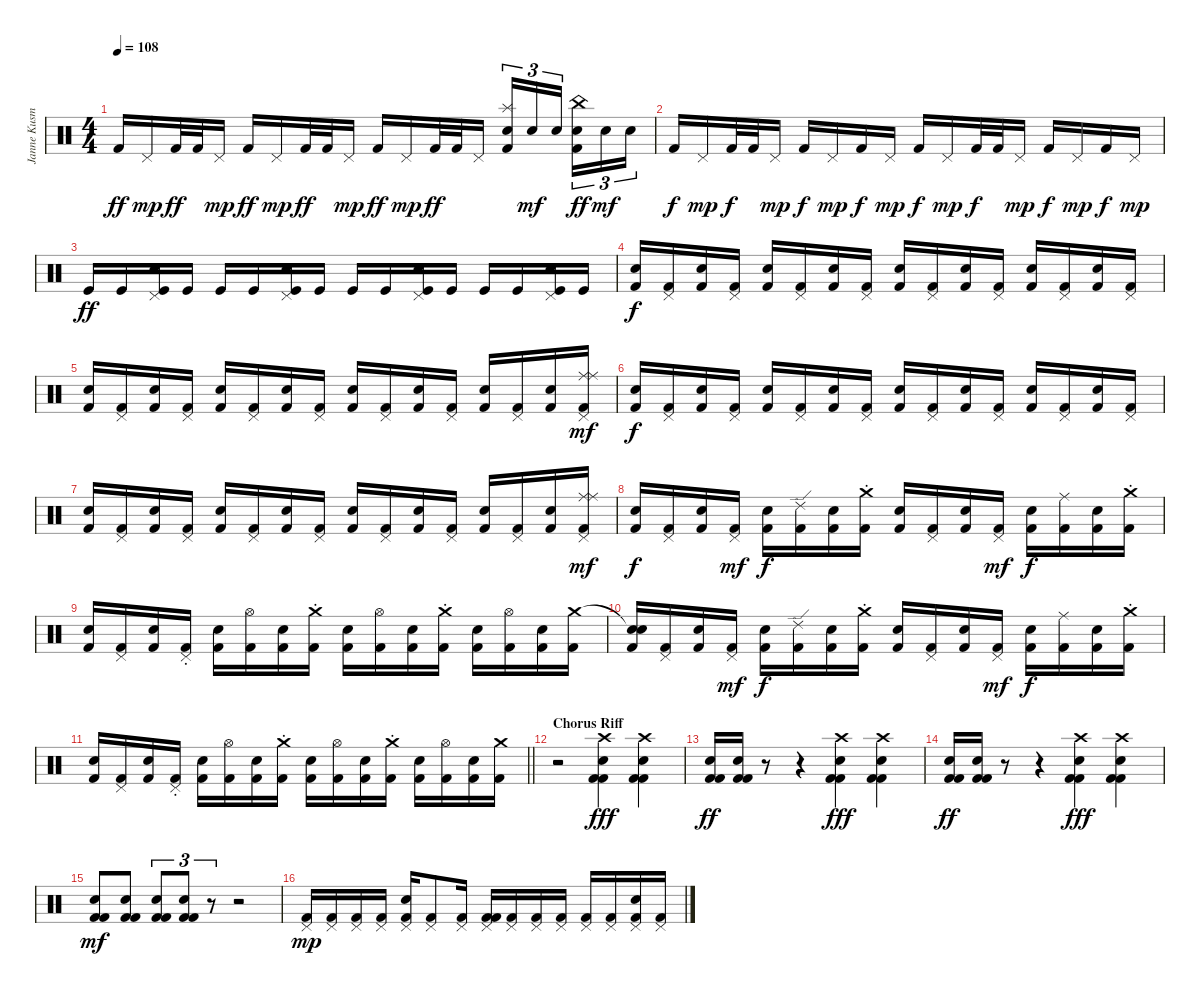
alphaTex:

\track ("Janne Kusmin" "Janne Kusm") {instrument percussion}
\staff {score}
\articulation defaults
\ts (4 4)
\tempo 108
\clef neutral
\ks c "Kick (hit) 2".16{dy ff} "Pedal Hi-Hat (hit)".16{dy mp} "Kick (hit) 2".32{dy ff} "Kick (hit) 2".32 "Pedal Hi-Hat (hit)".16{dy mp} "Kick (hit) 2".16{dy ff} "Pedal Hi-Hat (hit)".16{dy mp} "Kick (hit) 2".32{dy ff} "Kick (hit) 2".32 "Pedal Hi-Hat (hit)".16{dy mp} "Kick (hit) 2".16{dy ff} "Pedal Hi-Hat (hit)".16{dy mp} "Kick (hit) 2".32{dy ff} "Kick (hit) 2".32 "Pedal Hi-Hat (hit)".16
("Splash (hit)" "Snare (hit) 2" "Kick (hit) 2").16{tu (3 2)} "Snare (hit) 2".16{tu (3 2) dy mf} "Snare (hit) 2".16{tu (3 2) beam splitsecondary} ("China (hit)" "Snare (hit) 2" "Kick (hit) 2").16{tu (3 2) dy ff} "Snare (hit) 2".16{tu (3 2) dy mf} "Snare (hit) 2".16{tu (3 2)} |
"Kick (hit) 2".16{dy f} "Pedal Hi-Hat (hit)".16{dy mp} "Kick (hit) 2".32{dy f} "Kick (hit) 2".32 "Pedal Hi-Hat (hit)".16{dy mp} "Kick (hit) 2".16{dy f} "Pedal Hi-Hat (hit)".16{dy mp} "Kick (hit) 2".16{dy f} "Pedal Hi-Hat (hit)".16{dy mp} "Kick (hit) 2".16{dy f} "Pedal Hi-Hat (hit)".16{dy mp} "Kick (hit) 2".32{dy f} "Kick (hit) 2".32 "Pedal Hi-Hat (hit)".16{dy mp} "Kick (hit) 2".16{dy f} "Pedal Hi-Hat (hit)".16{dy mp} "Kick (hit) 2".16{dy f} "Pedal Hi-Hat (hit)".16{dy mp} |
"Kick (hit)".16{dy ff} "Kick (hit)".16 ("Pedal Hi-Hat (hit)" "Snare (hit) 2" "Kick (hit)").16 "Kick (hit)".16 "Kick (hit)".16 "Kick (hit)".16 ("Pedal Hi-Hat (hit)" "Snare (hit) 2" "Kick (hit)").16 "Kick (hit)".16 "Kick (hit)".16 "Kick (hit)".16 ("Pedal Hi-Hat (hit)" "Snare (hit) 2" "Kick (hit)").16 "Kick (hit)".16 "Kick (hit)".16 "Kick (hit)".16 ("Pedal Hi-Hat (hit)" "Snare (hit) 2" "Kick (hit)").16 "Kick (hit)".16 |
("Snare (hit) 2" "Kick (hit) 2").16{dy f} ("Pedal Hi-Hat (hit)" "Kick (hit) 2").16 ("Snare (hit) 2" "Kick (hit) 2").16 ("Pedal Hi-Hat (hit)" "Kick (hit) 2").16 ("Snare (hit) 2" "Kick (hit) 2").16 ("Pedal Hi-Hat (hit)" "Kick (hit) 2").16 ("Snare (hit) 2" "Kick (hit) 2").16 ("Pedal Hi-Hat (hit)" "Kick (hit) 2").16 ("Snare (hit) 2" "Kick (hit) 2").16 ("Pedal Hi-Hat (hit)" "Kick (hit) 2").16 ("Snare (hit) 2" "Kick (hit) 2").16 ("Pedal Hi-Hat (hit)" "Kick (hit) 2").16 ("Snare (hit) 2" "Kick (hit) 2").16 ("Pedal Hi-Hat (hit)" "Kick (hit) 2").16 ("Snare (hit) 2" "Kick (hit) 2").16 ("Pedal Hi-Hat (hit)" "Kick (hit) 2").16 |
("Snare (hit) 2" "Kick (hit) 2").16 ("Pedal Hi-Hat (hit)" "Kick (hit) 2").16 ("Snare (hit) 2" "Kick (hit) 2").16 ("Pedal Hi-Hat (hit)" "Kick (hit) 2").16 ("Snare (hit) 2" "Kick (hit) 2").16 ("Pedal Hi-Hat (hit)" "Kick (hit) 2").16 ("Snare (hit) 2" "Kick (hit) 2").16 ("Pedal Hi-Hat (hit)" "Kick (hit) 2").16 ("Snare (hit) 2" "Kick (hit) 2").16 ("Pedal Hi-Hat (hit)" "Kick (hit) 2").16 ("Snare (hit) 2" "Kick (hit) 2").16 ("Pedal Hi-Hat (hit)" "Kick (hit) 2").16 ("Snare (hit) 2" "Kick (hit) 2").16 ("Pedal Hi-Hat (hit)" "Kick (hit) 2").16 ("Snare (hit) 2" "Kick (hit) 2").16 ("Ride (middle)" "Ride (middle)" "Pedal Hi-Hat (hit)" "Kick (hit) 2").16{dy mf} |
("Snare (hit) 2" "Kick (hit) 2").16{dy f} ("Pedal Hi-Hat (hit)" "Kick (hit) 2").16 ("Snare (hit) 2" "Kick (hit) 2").16 ("Pedal Hi-Hat (hit)" "Kick (hit) 2").16 ("Snare (hit) 2" "Kick (hit) 2").16 ("Pedal Hi-Hat (hit)" "Kick (hit) 2").16 ("Snare (hit) 2" "Kick (hit) 2").16 ("Pedal Hi-Hat (hit)" "Kick (hit) 2").16 ("Snare (hit) 2" "Kick (hit) 2").16 ("Pedal Hi-Hat (hit)" "Kick (hit) 2").16 ("Snare (hit) 2" "Kick (hit) 2").16 ("Pedal Hi-Hat (hit)" "Kick (hit) 2").16 ("Snare (hit) 2" "Kick (hit) 2").16 ("Pedal Hi-Hat (hit)" "Kick (hit) 2").16 ("Snare (hit) 2" "Kick (hit) 2").16 ("Pedal Hi-Hat (hit)" "Kick (hit) 2").16 |
("Snare (hit) 2" "Kick (hit) 2").16 ("Pedal Hi-Hat (hit)" "Kick (hit) 2").16 ("Snare (hit) 2" "Kick (hit) 2").16 ("Pedal Hi-Hat (hit)" "Kick (hit) 2").16 ("Snare (hit) 2" "Kick (hit) 2").16 ("Pedal Hi-Hat (hit)" "Kick (hit) 2").16 ("Snare (hit) 2" "Kick (hit) 2").16 ("Pedal Hi-Hat (hit)" "Kick (hit) 2").16 ("Snare (hit) 2" "Kick (hit) 2").16 ("Pedal Hi-Hat (hit)" "Kick (hit) 2").16 ("Snare (hit) 2" "Kick (hit) 2").16 ("Pedal Hi-Hat (hit)" "Kick (hit) 2").16 ("Snare (hit) 2" "Kick (hit) 2").16 ("Pedal Hi-Hat (hit)" "Kick (hit) 2").16 ("Snare (hit) 2" "Kick (hit) 2").16 ("Ride (middle)" "Ride (middle)" "Pedal Hi-Hat (hit)" "Kick (hit) 2").16{dy mf} |
("Snare (hit) 2" "Kick (hit) 2").16{dy f} ("Pedal Hi-Hat (hit)" "Kick (hit) 2").16 ("Snare (hit) 2" "Kick (hit) 2").16 ("Pedal Hi-Hat (hit)" "Kick (hit) 2").16{dy mf} ("Snare (hit) 2" "Kick (hit) 2").16{dy f} ("Ride (edge) 2" "Kick (hit) 2").16 ("Snare (hit) 2" "Kick (hit) 2").16 ("Crash medium (hit)"{st} "Kick (hit) 2").16 ("Snare (hit) 2" "Kick (hit) 2").16 ("Pedal Hi-Hat (hit)" "Kick (hit) 2").16 ("Snare (hit) 2" "Kick (hit) 2").16 ("Pedal Hi-Hat (hit)" "Kick (hit) 2").16{dy mf} ("Snare (hit) 2" "Kick (hit) 2").16{dy f} ("Ride (middle)" "Kick (hit) 2").16 ("Snare (hit) 2" "Kick (hit) 2").16 ("Crash medium (hit)"{st} "Kick (hit) 2").16 |
("Snare (hit) 2" "Kick (hit) 2").16 ("Pedal Hi-Hat (hit)" "Kick (hit) 2").16 ("Snare (hit) 2" "Kick (hit) 2").16 ("Pedal Hi-Hat (hit)"{st} "Kick (hit) 2").16 ("Snare (hit) 2" "Kick (hit) 2").16 ("Hi-Hat (open)" "Kick (hit) 2").16 ("Snare (hit) 2" "Kick (hit) 2").16 ("Crash medium (hit)"{st} "Kick (hit) 2").16 ("Snare (hit) 2" "Kick (hit) 2").16 ("Hi-Hat (open)" "Kick (hit) 2").16 ("Snare (hit) 2" "Kick (hit) 2").16 ("Crash medium (hit)"{st} "Kick (hit) 2").16 ("Snare (hit) 2" "Kick (hit) 2").16 ("Hi-Hat (open)" "Kick (hit) 2").16 ("Snare (hit) 2" "Kick (hit) 2").16 ("Crash medium (hit)" "Kick (hit) 2").16 |
("Snare (hit)"{t} "Snare (hit) 2" "Kick (hit) 2").16 ("Pedal Hi-Hat (hit)" "Kick (hit) 2").16 ("Snare (hit) 2" "Kick (hit) 2").16 ("Pedal Hi-Hat (hit)" "Kick (hit) 2").16{dy mf} ("Snare (hit) 2" "Kick (hit) 2").16{dy f} ("Ride (edge) 2" "Kick (hit) 2").16 ("Snare (hit) 2" "Kick (hit) 2").16 ("Crash medium (hit)"{st} "Kick (hit) 2").16 ("Snare (hit) 2" "Kick (hit) 2").16 ("Pedal Hi-Hat (hit)" "Kick (hit) 2").16 ("Snare (hit) 2" "Kick (hit) 2").16 ("Pedal Hi-Hat (hit)" "Kick (hit) 2").16{dy mf} ("Snare (hit) 2" "Kick (hit) 2").16{dy f} ("Ride (middle)" "Kick (hit) 2").16 ("Snare (hit) 2" "Kick (hit) 2").16 ("Crash medium (hit)"{st} "Kick (hit) 2").16 |
\barLineRight lightlight
("Snare (hit) 2" "Kick (hit) 2").16 ("Pedal Hi-Hat (hit)" "Kick (hit) 2").16 ("Snare (hit) 2" "Kick (hit) 2").16 ("Pedal Hi-Hat (hit)"{st} "Kick (hit) 2").16 ("Snare (hit) 2" "Kick (hit) 2").16 ("Hi-Hat (open)" "Kick (hit) 2").16 ("Snare (hit) 2" "Kick (hit) 2").16 ("Crash medium (hit)"{st} "Kick (hit) 2").16 ("Snare (hit) 2" "Kick (hit) 2").16 ("Hi-Hat (open)" "Kick (hit) 2").16 ("Snare (hit) 2" "Kick (hit) 2").16 ("Crash medium (hit)"{st} "Kick (hit) 2").16 ("Snare (hit) 2" "Kick (hit) 2").16 ("Hi-Hat (open)" "Kick (hit) 2").16 ("Snare (hit) 2" "Kick (hit) 2").16 ("Crash medium (hit)" "Kick (hit) 2").16 |
\section ("" "Chorus Riff")
r.2 ("Crash high (hit)" "Snare (hit) 2" "Kick (hit) 2" "Kick (hit) 2").4{dy fff} ("Crash high (hit)" "Snare (hit) 2" "Kick (hit) 2" "Kick (hit) 2").4 |
("Snare (hit) 2" "Kick (hit) 2" "Kick (hit) 2").16{dy ff} ("Snare (hit) 2" "Kick (hit) 2" "Kick (hit) 2").16 r.8 r.4 ("Crash high (hit)" "Snare (hit) 2" "Kick (hit) 2" "Kick (hit) 2").4{dy fff} ("Crash high (hit)" "Snare (hit) 2" "Kick (hit) 2" "Kick (hit) 2").4 |
("Snare (hit) 2" "Kick (hit) 2" "Kick (hit) 2").16{dy ff} ("Snare (hit) 2" "Kick (hit) 2" "Kick (hit) 2").16 r.8 r.4 ("Crash high (hit)" "Snare (hit) 2" "Kick (hit) 2" "Kick (hit) 2").4{dy fff} ("Crash high (hit)" "Snare (hit) 2" "Kick (hit) 2" "Kick (hit) 2").4 |
("Snare (hit) 2" "Kick (hit) 2" "Kick (hit) 2").8{dy mf} ("Snare (hit) 2" "Kick (hit) 2" "Kick (hit) 2").8 ("Snare (hit) 2" "Kick (hit) 2" "Kick (hit) 2").8{tu (3 2)} ("Snare (hit) 2" "Kick (hit) 2" "Kick (hit) 2").8{tu (3 2)} r.8{tu (3 2)} r.2 |
("Pedal Hi-Hat (hit)" "Kick (hit) 2").16{dy mp} ("Pedal Hi-Hat (hit)" "Kick (hit) 2").16 ("Pedal Hi-Hat (hit)" "Kick (hit) 2").16 ("Pedal Hi-Hat (hit)" "Kick (hit) 2").16 ("Pedal Hi-Hat (hit)" "Snare (hit) 2" "Kick (hit) 2").16 ("Pedal Hi-Hat (hit)" "Kick (hit) 2").8 ("Pedal Hi-Hat (hit)" "Kick (hit) 2").16 ("Pedal Hi-Hat (hit)" "Kick (hit) 2" "Kick (hit) 2").16 ("Pedal Hi-Hat (hit)" "Kick (hit) 2").16 ("Pedal Hi-Hat (hit)" "Kick (hit) 2").16 ("Pedal Hi-Hat (hit)" "Kick (hit) 2").16 ("Pedal Hi-Hat (hit)" "Kick (hit) 2").16 ("Pedal Hi-Hat (hit)" "Kick (hit) 2").16 ("Pedal Hi-Hat (hit)" "Snare (hit) 2" "Kick (hit) 2").16 ("Pedal Hi-Hat (hit)" "Kick (hit) 2").16
